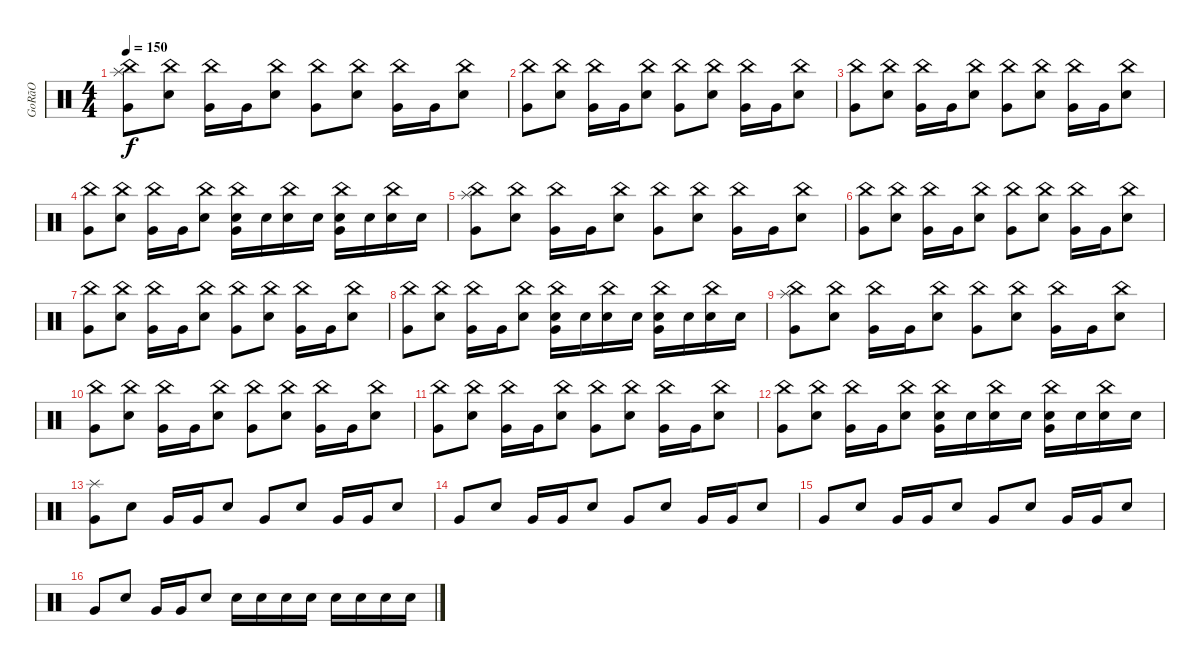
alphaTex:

\track ("GoRãO" "GoRãO") {instrument percussion}
\staff {score}
\articulation defaults
\ts (4 4)
\tempo 150
\clef neutral
\ks c
("Very Low Tom (hit)" "Splash (hit)" "China (hit)").8{dy f} ("Electric Snare (hit)" "China (hit)").8 ("Very Low Tom (hit)" "China (hit)").16 "Very Low Tom (hit)".16 ("Electric Snare (hit)" "China (hit)").8 ("Very Low Tom (hit)" "China (hit)").8 ("Electric Snare (hit)" "China (hit)").8 ("Very Low Tom (hit)" "China (hit)").16 "Very Low Tom (hit)".16 ("Electric Snare (hit)" "China (hit)").8 |
("Very Low Tom (hit)" "China (hit)").8 ("Electric Snare (hit)" "China (hit)").8 ("Very Low Tom (hit)" "China (hit)").16 "Very Low Tom (hit)".16 ("Electric Snare (hit)" "China (hit)").8 ("Very Low Tom (hit)" "China (hit)").8 ("Electric Snare (hit)" "China (hit)").8 ("Very Low Tom (hit)" "China (hit)").16 "Very Low Tom (hit)".16 ("Electric Snare (hit)" "China (hit)").8 |
("Very Low Tom (hit)" "China (hit)").8 ("Electric Snare (hit)" "China (hit)").8 ("Very Low Tom (hit)" "China (hit)").16 "Very Low Tom (hit)".16 ("Electric Snare (hit)" "China (hit)").8 ("Very Low Tom (hit)" "China (hit)").8 ("Electric Snare (hit)" "China (hit)").8 ("Very Low Tom (hit)" "China (hit)").16 "Very Low Tom (hit)".16 ("Electric Snare (hit)" "China (hit)").8 |
("Very Low Tom (hit)" "China (hit)").8 ("Electric Snare (hit)" "China (hit)").8 ("Very Low Tom (hit)" "China (hit)").16 "Very Low Tom (hit)".16 ("Electric Snare (hit)" "China (hit)").8 ("Snare (hit) 2" "Very Low Tom (hit)" "China (hit)").16 "Snare (hit) 2".16 ("Snare (hit) 2" "China (hit)").16 "Snare (hit) 2".16 ("Snare (hit) 2" "Very Low Tom (hit)" "China (hit)").16 "Snare (hit) 2".16 ("Snare (hit) 2" "China (hit)").16 "Snare (hit) 2".16 |
("Very Low Tom (hit)" "Splash (hit)" "China (hit)").8 ("Electric Snare (hit)" "China (hit)").8 ("Very Low Tom (hit)" "China (hit)").16 "Very Low Tom (hit)".16 ("Electric Snare (hit)" "China (hit)").8 ("Very Low Tom (hit)" "China (hit)").8 ("Electric Snare (hit)" "China (hit)").8 ("Very Low Tom (hit)" "China (hit)").16 "Very Low Tom (hit)".16 ("Electric Snare (hit)" "China (hit)").8 |
("Very Low Tom (hit)" "China (hit)").8 ("Electric Snare (hit)" "China (hit)").8 ("Very Low Tom (hit)" "China (hit)").16 "Very Low Tom (hit)".16 ("Electric Snare (hit)" "China (hit)").8 ("Very Low Tom (hit)" "China (hit)").8 ("Electric Snare (hit)" "China (hit)").8 ("Very Low Tom (hit)" "China (hit)").16 "Very Low Tom (hit)".16 ("Electric Snare (hit)" "China (hit)").8 |
("Very Low Tom (hit)" "China (hit)").8 ("Electric Snare (hit)" "China (hit)").8 ("Very Low Tom (hit)" "China (hit)").16 "Very Low Tom (hit)".16 ("Electric Snare (hit)" "China (hit)").8 ("Very Low Tom (hit)" "China (hit)").8 ("Electric Snare (hit)" "China (hit)").8 ("Very Low Tom (hit)" "China (hit)").16 "Very Low Tom (hit)".16 ("Electric Snare (hit)" "China (hit)").8 |
("Very Low Tom (hit)" "China (hit)").8 ("Electric Snare (hit)" "China (hit)").8 ("Very Low Tom (hit)" "China (hit)").16 "Very Low Tom (hit)".16 ("Electric Snare (hit)" "China (hit)").8 ("Snare (hit) 2" "Very Low Tom (hit)" "China (hit)").16 "Snare (hit) 2".16 ("Snare (hit) 2" "China (hit)").16 "Snare (hit) 2".16 ("Snare (hit) 2" "Very Low Tom (hit)" "China (hit)").16 "Snare (hit) 2".16 ("Snare (hit) 2" "China (hit)").16 "Snare (hit) 2".16 |
("Very Low Tom (hit)" "Splash (hit)" "China (hit)").8 ("Electric Snare (hit)" "China (hit)").8 ("Very Low Tom (hit)" "China (hit)").16 "Very Low Tom (hit)".16 ("Electric Snare (hit)" "China (hit)").8 ("Very Low Tom (hit)" "China (hit)").8 ("Electric Snare (hit)" "China (hit)").8 ("Very Low Tom (hit)" "China (hit)").16 "Very Low Tom (hit)".16 ("Electric Snare (hit)" "China (hit)").8 |
("Very Low Tom (hit)" "China (hit)").8 ("Electric Snare (hit)" "China (hit)").8 ("Very Low Tom (hit)" "China (hit)").16 "Very Low Tom (hit)".16 ("Electric Snare (hit)" "China (hit)").8 ("Very Low Tom (hit)" "China (hit)").8 ("Electric Snare (hit)" "China (hit)").8 ("Very Low Tom (hit)" "China (hit)").16 "Very Low Tom (hit)".16 ("Electric Snare (hit)" "China (hit)").8 |
("Very Low Tom (hit)" "China (hit)").8 ("Electric Snare (hit)" "China (hit)").8 ("Very Low Tom (hit)" "China (hit)").16 "Very Low Tom (hit)".16 ("Electric Snare (hit)" "China (hit)").8 ("Very Low Tom (hit)" "China (hit)").8 ("Electric Snare (hit)" "China (hit)").8 ("Very Low Tom (hit)" "China (hit)").16 "Very Low Tom (hit)".16 ("Electric Snare (hit)" "China (hit)").8 |
("Very Low Tom (hit)" "China (hit)").8 ("Electric Snare (hit)" "China (hit)").8 ("Very Low Tom (hit)" "China (hit)").16 "Very Low Tom (hit)".16 ("Electric Snare (hit)" "China (hit)").8 ("Snare (hit) 2" "Very Low Tom (hit)" "China (hit)").16 "Snare (hit) 2".16 ("Snare (hit) 2" "China (hit)").16 "Snare (hit) 2".16 ("Snare (hit) 2" "Very Low Tom (hit)" "China (hit)").16 "Snare (hit) 2".16 ("Snare (hit) 2" "China (hit)").16 "Snare (hit) 2".16 |
("Very Low Tom (hit)" "Splash (hit)").8 "Electric Snare (hit)".8 "Very Low Tom (hit)".16 "Very Low Tom (hit)".16 "Electric Snare (hit)".8 "Very Low Tom (hit)".8 "Electric Snare (hit)".8 "Very Low Tom (hit)".16 "Very Low Tom (hit)".16 "Electric Snare (hit)".8 |
"Very Low Tom (hit)".8 "Electric Snare (hit)".8 "Very Low Tom (hit)".16 "Very Low Tom (hit)".16 "Electric Snare (hit)".8 "Very Low Tom (hit)".8 "Electric Snare (hit)".8 "Very Low Tom (hit)".16 "Very Low Tom (hit)".16 "Electric Snare (hit)".8 |
"Very Low Tom (hit)".8 "Electric Snare (hit)".8 "Very Low Tom (hit)".16 "Very Low Tom (hit)".16 "Electric Snare (hit)".8 "Very Low Tom (hit)".8 "Electric Snare (hit)".8 "Very Low Tom (hit)".16 "Very Low Tom (hit)".16 "Electric Snare (hit)".8 |
"Very Low Tom (hit)".8 "Electric Snare (hit)".8 "Very Low Tom (hit)".16 "Very Low Tom (hit)".16 "Electric Snare (hit)".8 "Snare (hit) 2".16 "Snare (hit) 2".16 "Snare (hit) 2".16 "Snare (hit) 2".16 "Snare (hit) 2".16 "Snare (hit) 2".16 "Snare (hit) 2".16 "Snare (hit) 2".16
